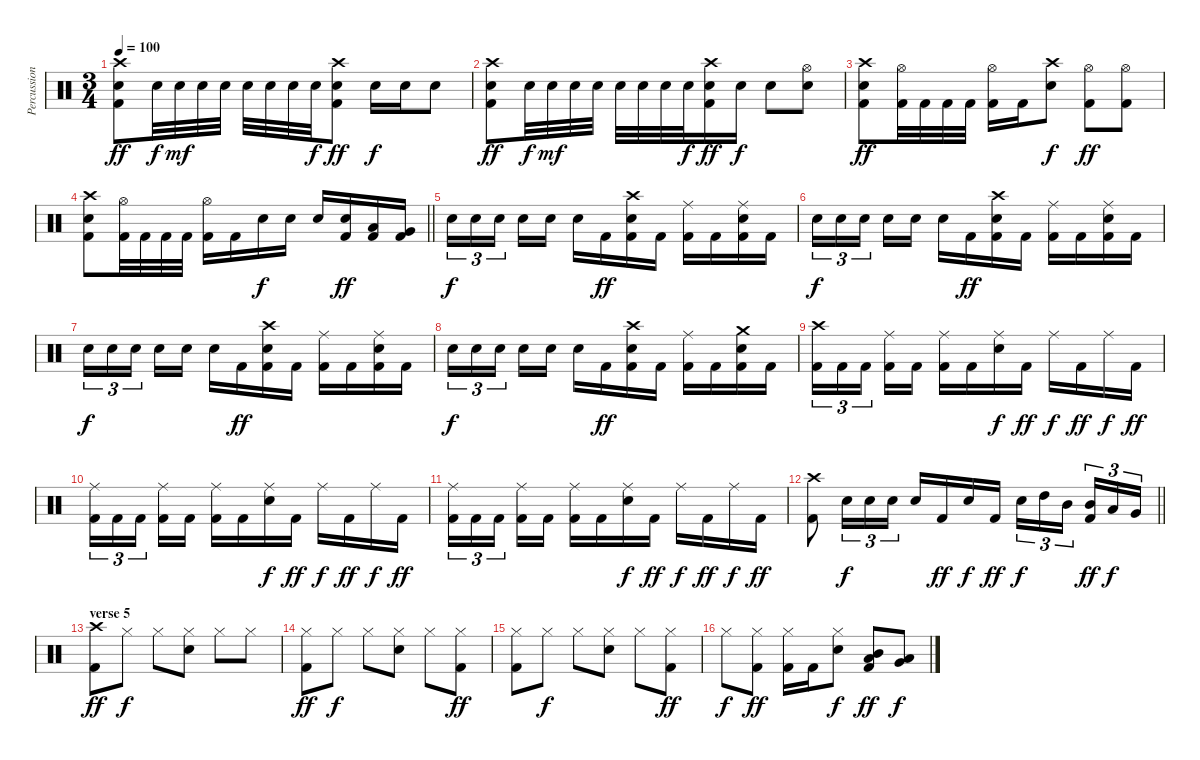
\track ("Percussion" "Percussion") {instrument percussion}
\staff {score}
\articulation defaults
\ts (3 4)
\tempo 100
\clef neutral
\ks c
("Crash high (hit)" "Snare (hit) 2" "Kick (hit) 2").8{dy ff} "Snare (hit) 2".32{dy f} "Snare (hit) 2".32{dy mf} "Snare (hit) 2".32 "Snare (hit) 2".32 "Snare (hit) 2".32 "Snare (hit) 2".32 "Snare (hit) 2".32 "Snare (hit) 2".32{dy f} ("Crash high (hit)" "Snare (hit) 2" "Kick (hit) 2").8{dy ff} "Snare (hit) 2".16{dy f} "Snare (hit) 2".16 "Snare (hit) 2".8 |
("Crash high (hit)" "Snare (hit) 2" "Kick (hit) 2").8{dy ff} "Snare (hit) 2".32{dy f} "Snare (hit) 2".32{dy mf} "Snare (hit) 2".32 "Snare (hit) 2".32 "Snare (hit) 2".32 "Snare (hit) 2".32 "Snare (hit) 2".32 "Snare (hit) 2".32{dy f} ("Crash high (hit)" "Snare (hit) 2" "Kick (hit) 2").16{dy ff} "Snare (hit) 2".16{dy f} "Snare (hit) 2".8 ("Hi-Hat (open)" "Snare (hit) 2").8 |
("Crash high (hit)" "Snare (hit) 2" "Kick (hit) 2").8{dy ff} ("Hi-Hat (open)" "Kick (hit) 2").32 "Kick (hit) 2".32 "Kick (hit) 2".32 "Kick (hit) 2".32 ("Hi-Hat (open)" "Kick (hit) 2").16 "Kick (hit) 2".16 ("Crash high (hit)" "Snare (hit) 2").8{dy f} ("Hi-Hat (open)" "Kick (hit) 2").8{dy ff} ("Hi-Hat (open)" "Kick (hit) 2").8 |
\barLineRight lightlight
("Crash high (hit)" "Snare (hit) 2" "Kick (hit) 2").8 ("Hi-Hat (open)" "Kick (hit) 2").32 "Kick (hit) 2".32 "Kick (hit) 2".32 "Kick (hit) 2".32 ("Hi-Hat (open)" "Kick (hit) 2").16 "Kick (hit) 2".16 "Snare (hit) 2".16{dy f} "Snare (hit) 2".16 "Snare (hit) 2".16 ("Snare (hit) 2" "Kick (hit) 2").16{dy ff} ("Low Tom (hit)" "Kick (hit) 2").16 ("Very Low Tom (hit)" "Kick (hit) 2").16 |
\section ("" "")
"Snare (hit) 2".16{tu (3 2) dy f} "Snare (hit) 2".16{tu (3 2)} "Snare (hit) 2".16{tu (3 2) beam splitsecondary} "Snare (hit) 2".16 "Snare (hit) 2".16 "Snare (hit) 2".16 "Kick (hit) 2".16{dy ff} ("Crash high (hit)" "Snare (hit) 2" "Kick (hit) 2").16 "Kick (hit) 2".16 ("Ride (middle)" "Kick (hit) 2").16 "Kick (hit) 2".16 ("Ride (middle)" "Snare (hit) 2" "Kick (hit) 2").16 "Kick (hit) 2".16 |
"Snare (hit) 2".16{tu (3 2) dy f} "Snare (hit) 2".16{tu (3 2)} "Snare (hit) 2".16{tu (3 2) beam splitsecondary} "Snare (hit) 2".16 "Snare (hit) 2".16 "Snare (hit) 2".16 "Kick (hit) 2".16{dy ff} ("Crash high (hit)" "Snare (hit) 2" "Kick (hit) 2").16 "Kick (hit) 2".16 ("Ride (middle)" "Kick (hit) 2").16 "Kick (hit) 2".16 ("Ride (middle)" "Snare (hit) 2" "Kick (hit) 2").16 "Kick (hit) 2".16 |
"Snare (hit) 2".16{tu (3 2) dy f} "Snare (hit) 2".16{tu (3 2)} "Snare (hit) 2".16{tu (3 2) beam splitsecondary} "Snare (hit) 2".16 "Snare (hit) 2".16 "Snare (hit) 2".16 "Kick (hit) 2".16{dy ff} ("Crash high (hit)" "Snare (hit) 2" "Kick (hit) 2").16 "Kick (hit) 2".16 ("Ride (middle)" "Kick (hit) 2").16 "Kick (hit) 2".16 ("Ride (middle)" "Snare (hit) 2" "Kick (hit) 2").16 "Kick (hit) 2".16 |
"Snare (hit) 2".16{tu (3 2) dy f} "Snare (hit) 2".16{tu (3 2)} "Snare (hit) 2".16{tu (3 2) beam splitsecondary} "Snare (hit) 2".16 "Snare (hit) 2".16 "Snare (hit) 2".16 "Kick (hit) 2".16{dy ff} ("Crash high (hit)" "Snare (hit) 2" "Kick (hit) 2").16 "Kick (hit) 2".16 ("Ride (middle)" "Kick (hit) 2").16 "Kick (hit) 2".16 ("Crash medium (hit)" "Snare (hit) 2" "Kick (hit) 2").16 "Kick (hit) 2".16 |
("Crash high (hit)" "Kick (hit) 2").16{tu (3 2)} "Kick (hit) 2".16{tu (3 2)} "Kick (hit) 2".16{tu (3 2) beam splitsecondary} ("Ride (middle)" "Kick (hit) 2").16 "Kick (hit) 2".16 ("Ride (middle)" "Kick (hit) 2").16 "Kick (hit) 2".16 ("Ride (middle)" "Snare (hit) 2").16{dy f} "Kick (hit) 2".16{dy ff} "Ride (middle)".16{dy f} "Kick (hit) 2".16{dy ff} "Ride (middle)".16{dy f} "Kick (hit) 2".16{dy ff} |
("Ride (middle)" "Kick (hit) 2").16{tu (3 2)} "Kick (hit) 2".16{tu (3 2)} "Kick (hit) 2".16{tu (3 2) beam splitsecondary} ("Ride (middle)" "Kick (hit) 2").16 "Kick (hit) 2".16 ("Ride (middle)" "Kick (hit) 2").16 "Kick (hit) 2".16 ("Ride (middle)" "Snare (hit) 2").16{dy f} "Kick (hit) 2".16{dy ff} "Ride (middle)".16{dy f} "Kick (hit) 2".16{dy ff} "Ride (middle)".16{dy f} "Kick (hit) 2".16{dy ff} |
("Ride (middle)" "Kick (hit) 2").16{tu (3 2)} "Kick (hit) 2".16{tu (3 2)} "Kick (hit) 2".16{tu (3 2) beam splitsecondary} ("Ride (middle)" "Kick (hit) 2").16 "Kick (hit) 2".16 ("Ride (middle)" "Kick (hit) 2").16 "Kick (hit) 2".16 ("Ride (middle)" "Snare (hit) 2").16{dy f} "Kick (hit) 2".16{dy ff} "Ride (middle)".16{dy f} "Kick (hit) 2".16{dy ff} "Ride (middle)".16{dy f} "Kick (hit) 2".16{dy ff} |
\barLineRight lightlight
("Crash high (hit)" "Kick (hit) 2").8 "Snare (hit) 2".16{tu (3 2) dy f} "Snare (hit) 2".16{tu (3 2)} "Snare (hit) 2".16{tu (3 2)} "Snare (hit) 2".16 "Kick (hit) 2".16{dy ff} "Snare (hit) 2".16{dy f} "Kick (hit) 2".16{dy ff} "Snare (hit) 2".16{tu (3 2) dy f} "High Tom (hit)".16{tu (3 2)} "Mid Tom (hit)".16{tu (3 2) beam splitsecondary} ("Mid Tom (hit)" "Kick (hit) 2").16{tu (3 2) dy ff} "Low Tom (hit)".16{tu (3 2) dy f} "Very Low Tom (hit)".16{tu (3 2)} |
\section ("" "verse 5")
("Crash high (hit)" "Kick (hit) 2").8{dy ff} "Hi-Hat (closed)".8{dy f} "Hi-Hat (closed)".8 ("Hi-Hat (closed)" "Snare (hit) 2").8 "Hi-Hat (closed)".8 "Hi-Hat (closed)".8 |
("Hi-Hat (closed)" "Kick (hit) 2").8{dy ff} "Hi-Hat (closed)".8{dy f} "Hi-Hat (closed)".8 ("Hi-Hat (closed)" "Snare (hit) 2").8 "Hi-Hat (closed)".8 ("Hi-Hat (closed)" "Kick (hit) 2").8{dy ff} |
("Hi-Hat (closed)" "Kick (hit) 2").8 "Hi-Hat (closed)".8{dy f} "Hi-Hat (closed)".8 ("Hi-Hat (closed)" "Snare (hit) 2").8 "Hi-Hat (closed)".8 ("Hi-Hat (closed)" "Kick (hit) 2").8{dy ff} |
"Hi-Hat (closed)".8{dy f} ("Hi-Hat (closed)" "Kick (hit) 2").8{dy ff} ("Hi-Hat (closed)" "Kick (hit) 2").16 "Kick (hit) 2".16 ("Hi-Hat (closed)" "Snare (hit) 2").8{dy f} ("Low Tom (hit)" "Mid Tom (hit)" "Kick (hit) 2").8{dy ff} ("Very Low Tom (hit)" "Low Tom (hit)").8{dy f}
